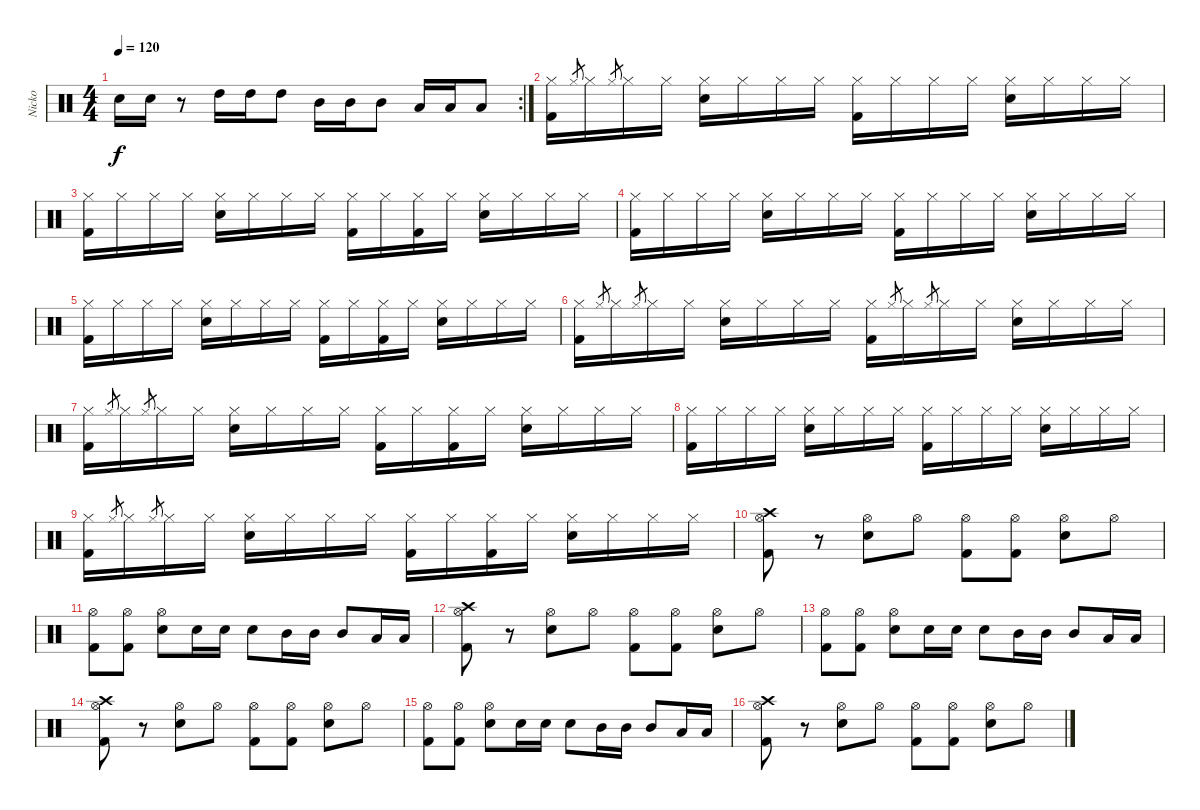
\track ("Nicko" "Nicko") {instrument percussion}
\staff {score}
\articulation defaults
\rc 2
\ts (4 4)
\tempo 120
\clef neutral
\ks c "Snare (hit) 2".16{dy f} "Snare (hit) 2".16
r.8 "High Tom (hit)".16 "High Tom (hit)".16 "High Tom (hit)".8 "Mid Tom (hit)".16 "Mid Tom (hit)".16 "Mid Tom (hit)".8 "Low Tom (hit)".16 "Low Tom (hit)".16 "Low Tom (hit)".8 |
("Kick (hit) 2" "Hi-Hat (closed)").16 "Hi-Hat (closed)".8{gr} "Hi-Hat (closed)".16 "Hi-Hat (closed)".8{gr} "Hi-Hat (closed)".16 "Hi-Hat (closed)".16 ("Hi-Hat (closed)" "Electric Snare (hit)").16 "Hi-Hat (closed)".16 "Hi-Hat (closed)".16 "Hi-Hat (closed)".16 ("Hi-Hat (closed)" "Kick (hit) 2").16 "Hi-Hat (closed)".16 "Hi-Hat (closed)".16 "Hi-Hat (closed)".16 ("Hi-Hat (closed)" "Electric Snare (hit)").16 "Hi-Hat (closed)".16 "Hi-Hat (closed)".16 "Hi-Hat (closed)".16 |
("Kick (hit) 2" "Hi-Hat (closed)").16 "Hi-Hat (closed)".16 "Hi-Hat (closed)".16 "Hi-Hat (closed)".16 ("Hi-Hat (closed)" "Electric Snare (hit)").16 "Hi-Hat (closed)".16 "Hi-Hat (closed)".16 "Hi-Hat (closed)".16 ("Hi-Hat (closed)" "Kick (hit) 2").16 "Hi-Hat (closed)".16 ("Hi-Hat (closed)" "Kick (hit) 2").16 "Hi-Hat (closed)".16 ("Hi-Hat (closed)" "Electric Snare (hit)").16 "Hi-Hat (closed)".16 "Hi-Hat (closed)".16 "Hi-Hat (closed)".16 |
("Kick (hit) 2" "Hi-Hat (closed)").16 "Hi-Hat (closed)".16 "Hi-Hat (closed)".16 "Hi-Hat (closed)".16 ("Hi-Hat (closed)" "Electric Snare (hit)").16 "Hi-Hat (closed)".16 "Hi-Hat (closed)".16 "Hi-Hat (closed)".16 ("Hi-Hat (closed)" "Kick (hit) 2").16 "Hi-Hat (closed)".16 "Hi-Hat (closed)".16 "Hi-Hat (closed)".16 ("Hi-Hat (closed)" "Electric Snare (hit)").16 "Hi-Hat (closed)".16 "Hi-Hat (closed)".16 "Hi-Hat (closed)".16 |
("Kick (hit) 2" "Hi-Hat (closed)").16 "Hi-Hat (closed)".16 "Hi-Hat (closed)".16 "Hi-Hat (closed)".16 ("Hi-Hat (closed)" "Electric Snare (hit)").16 "Hi-Hat (closed)".16 "Hi-Hat (closed)".16 "Hi-Hat (closed)".16 ("Hi-Hat (closed)" "Kick (hit) 2").16 "Hi-Hat (closed)".16 ("Hi-Hat (closed)" "Kick (hit) 2").16 "Hi-Hat (closed)".16 ("Hi-Hat (closed)" "Electric Snare (hit)").16 "Hi-Hat (closed)".16 "Hi-Hat (closed)".16 "Hi-Hat (closed)".16 |
("Kick (hit) 2" "Hi-Hat (closed)").16 "Hi-Hat (closed)".8{gr} "Hi-Hat (closed)".16 "Hi-Hat (closed)".8{gr} "Hi-Hat (closed)".16 "Hi-Hat (closed)".16 ("Hi-Hat (closed)" "Electric Snare (hit)").16 "Hi-Hat (closed)".16 "Hi-Hat (closed)".16 "Hi-Hat (closed)".16 ("Hi-Hat (closed)" "Kick (hit) 2").16 "Hi-Hat (closed)".8{gr} "Hi-Hat (closed)".16 "Hi-Hat (closed)".8{gr} "Hi-Hat (closed)".16 "Hi-Hat (closed)".16 ("Hi-Hat (closed)" "Electric Snare (hit)").16 "Hi-Hat (closed)".16 "Hi-Hat (closed)".16 "Hi-Hat (closed)".16 |
("Kick (hit) 2" "Hi-Hat (closed)").16 "Hi-Hat (closed)".8{gr} "Hi-Hat (closed)".16 "Hi-Hat (closed)".8{gr} "Hi-Hat (closed)".16 "Hi-Hat (closed)".16 ("Hi-Hat (closed)" "Electric Snare (hit)").16 "Hi-Hat (closed)".16 "Hi-Hat (closed)".16 "Hi-Hat (closed)".16 ("Hi-Hat (closed)" "Kick (hit) 2").16 "Hi-Hat (closed)".16 ("Hi-Hat (closed)" "Kick (hit) 2").16 "Hi-Hat (closed)".16 ("Hi-Hat (closed)" "Electric Snare (hit)").16 "Hi-Hat (closed)".16 "Hi-Hat (closed)".16 "Hi-Hat (closed)".16 |
("Kick (hit) 2" "Hi-Hat (closed)").16 "Hi-Hat (closed)".16 "Hi-Hat (closed)".16 "Hi-Hat (closed)".16 ("Hi-Hat (closed)" "Electric Snare (hit)").16 "Hi-Hat (closed)".16 "Hi-Hat (closed)".16 "Hi-Hat (closed)".16 ("Hi-Hat (closed)" "Kick (hit) 2").16 "Hi-Hat (closed)".16 "Hi-Hat (closed)".16 "Hi-Hat (closed)".16 ("Hi-Hat (closed)" "Electric Snare (hit)").16 "Hi-Hat (closed)".16 "Hi-Hat (closed)".16 "Hi-Hat (closed)".16 |
("Kick (hit) 2" "Hi-Hat (closed)").16 "Hi-Hat (closed)".8{gr} "Hi-Hat (closed)".16 "Hi-Hat (closed)".8{gr} "Hi-Hat (closed)".16 "Hi-Hat (closed)".16 ("Hi-Hat (closed)" "Electric Snare (hit)").16 "Hi-Hat (closed)".16 "Hi-Hat (closed)".16 "Hi-Hat (closed)".16 ("Hi-Hat (closed)" "Kick (hit) 2").16 "Hi-Hat (closed)".16 ("Hi-Hat (closed)" "Kick (hit) 2").16 "Hi-Hat (closed)".16 ("Hi-Hat (closed)" "Electric Snare (hit)").16 "Hi-Hat (closed)".16 "Hi-Hat (closed)".16 "Hi-Hat (closed)".16 |
("Kick (hit) 2" "Hi-Hat (open)" "Crash high (hit)").8 r.8 ("Snare (hit) 2" "Hi-Hat (open)").8 "Hi-Hat (open)".8 ("Kick (hit) 2" "Hi-Hat (open)").8 ("Kick (hit) 2" "Hi-Hat (open)").8 ("Snare (hit) 2" "Hi-Hat (open)").8 "Hi-Hat (open)".8 |
("Kick (hit) 2" "Hi-Hat (open)").8 ("Kick (hit) 2" "Hi-Hat (open)").8 ("Snare (hit) 2" "Hi-Hat (open)").8 "Snare (hit) 2".16 "Snare (hit) 2".16 "Snare (hit) 2".8 "Mid Tom (hit)".16 "Mid Tom (hit)".16 "Mid Tom (hit)".8 "Low Tom (hit)".16 "Low Tom (hit)".16 |
("Kick (hit) 2" "Hi-Hat (open)" "Crash high (hit)").8 r.8 ("Snare (hit) 2" "Hi-Hat (open)").8 "Hi-Hat (open)".8 ("Kick (hit) 2" "Hi-Hat (open)").8 ("Kick (hit) 2" "Hi-Hat (open)").8 ("Snare (hit) 2" "Hi-Hat (open)").8 "Hi-Hat (open)".8 |
("Kick (hit) 2" "Hi-Hat (open)").8 ("Kick (hit) 2" "Hi-Hat (open)").8 ("Snare (hit) 2" "Hi-Hat (open)").8 "Snare (hit) 2".16 "Snare (hit) 2".16 "Snare (hit) 2".8 "Mid Tom (hit)".16 "Mid Tom (hit)".16 "Mid Tom (hit)".8 "Low Tom (hit)".16 "Low Tom (hit)".16 |
("Kick (hit) 2" "Hi-Hat (open)" "Crash high (hit)").8 r.8 ("Snare (hit) 2" "Hi-Hat (open)").8 "Hi-Hat (open)".8 ("Kick (hit) 2" "Hi-Hat (open)").8 ("Kick (hit) 2" "Hi-Hat (open)").8 ("Snare (hit) 2" "Hi-Hat (open)").8 "Hi-Hat (open)".8 |
("Kick (hit) 2" "Hi-Hat (open)").8 ("Kick (hit) 2" "Hi-Hat (open)").8 ("Snare (hit) 2" "Hi-Hat (open)").8 "Snare (hit) 2".16 "Snare (hit) 2".16 "Snare (hit) 2".8 "Mid Tom (hit)".16 "Mid Tom (hit)".16 "Mid Tom (hit)".8 "Low Tom (hit)".16 "Low Tom (hit)".16 |
("Kick (hit) 2" "Hi-Hat (open)" "Crash high (hit)").8 r.8 ("Snare (hit) 2" "Hi-Hat (open)").8 "Hi-Hat (open)".8 ("Kick (hit) 2" "Hi-Hat (open)").8 ("Kick (hit) 2" "Hi-Hat (open)").8 ("Snare (hit) 2" "Hi-Hat (open)").8 "Hi-Hat (open)".8
